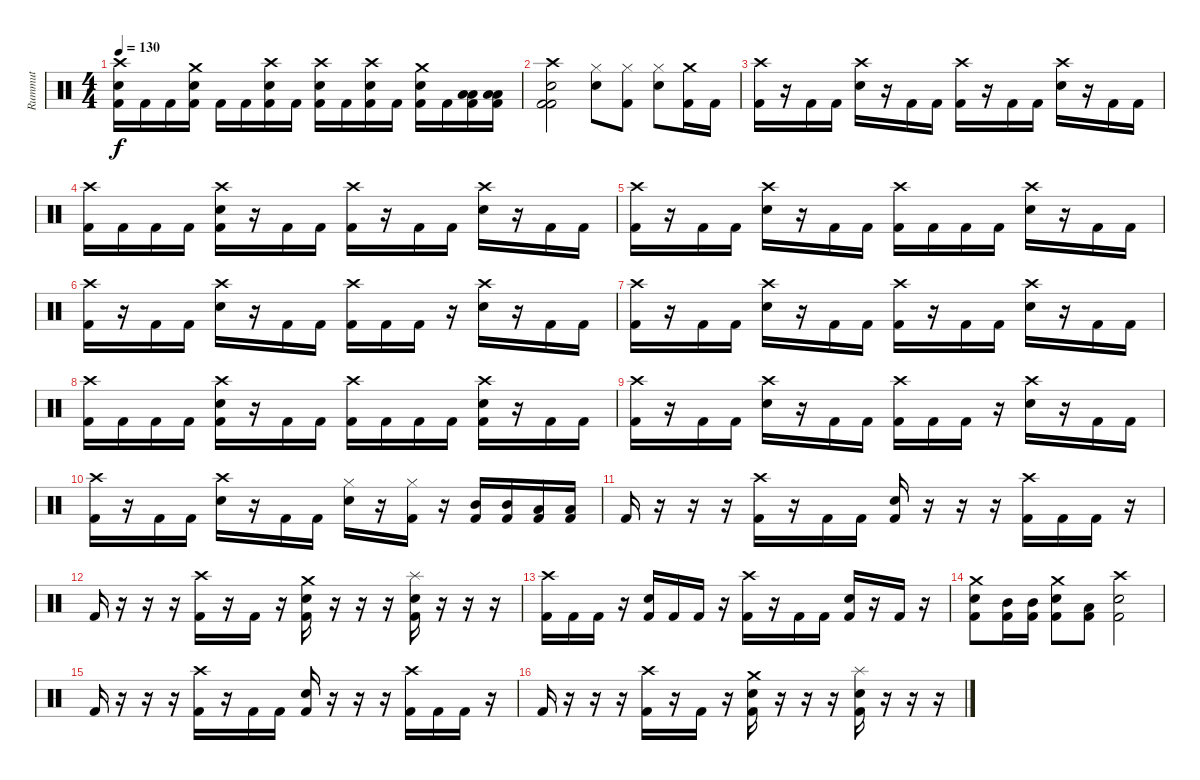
\track ("Rummut" "Rummut") {instrument percussion}
\staff {score}
\articulation defaults
\ts (4 4)
\tempo 130
\clef neutral
\ks c
("Crash high (hit)" "Snare (hit) 2" "Kick (hit) 2").16{dy f} "Kick (hit) 2".16 "Kick (hit) 2".16 ("Crash medium (hit)" "Snare (hit) 2" "Kick (hit) 2").16 "Kick (hit) 2".16 "Kick (hit) 2".16 ("Crash high (hit)" "Snare (hit) 2" "Kick (hit) 2").16 "Kick (hit) 2".16 ("Crash high (hit)" "Snare (hit) 2" "Kick (hit) 2").16 "Kick (hit) 2".16 ("Crash high (hit)" "Snare (hit) 2" "Kick (hit) 2").16 "Kick (hit) 2".16 ("Crash medium (hit)" "Snare (hit) 2" "Kick (hit) 2").16 "Kick (hit) 2".16 ("Low Tom (hit)" "Low Floor Tom (hit)" "Kick (hit) 2").16 ("Low Tom (hit)" "Low Floor Tom (hit)" "Kick (hit) 2").16 |
("Crash high (hit)" "Snare (hit) 2" "Kick (hit) 2" "Kick (hit) 2").2 ("Hi-Hat (closed)" "Snare (hit) 2").8 ("Hi-Hat (closed)" "Kick (hit) 2").8 ("Hi-Hat (closed)" "Snare (hit) 2").8 ("Crash medium (hit)" "Kick (hit) 2").16 "Kick (hit) 2".16 |
("Crash high (hit)" "Kick (hit) 2").16 r.16 "Kick (hit) 2".16 "Kick (hit) 2".16 ("Crash high (hit)" "Snare (hit) 2").16 r.16 "Kick (hit) 2".16 "Kick (hit) 2".16 ("Crash high (hit)" "Kick (hit) 2").16 r.16 "Kick (hit) 2".16 "Kick (hit) 2".16 ("Crash high (hit)" "Snare (hit) 2").16 r.16 "Kick (hit) 2".16 "Kick (hit) 2".16 |
("Crash high (hit)" "Kick (hit) 2").16 "Kick (hit) 2".16 "Kick (hit) 2".16 "Kick (hit) 2".16 ("Crash high (hit)" "Snare (hit) 2" "Kick (hit) 2").16 r.16 "Kick (hit) 2".16 "Kick (hit) 2".16 ("Crash high (hit)" "Kick (hit) 2").16 r.16 "Kick (hit) 2".16 "Kick (hit) 2".16 ("Crash high (hit)" "Snare (hit) 2").16 r.16 "Kick (hit) 2".16 "Kick (hit) 2".16 |
("Crash high (hit)" "Kick (hit) 2").16 r.16 "Kick (hit) 2".16 "Kick (hit) 2".16 ("Crash high (hit)" "Snare (hit) 2").16 r.16 "Kick (hit) 2".16 "Kick (hit) 2".16 ("Crash high (hit)" "Kick (hit) 2").16 "Kick (hit) 2".16 "Kick (hit) 2".16 "Kick (hit) 2".16 ("Crash high (hit)" "Snare (hit) 2").16 r.16 "Kick (hit) 2".16 "Kick (hit) 2".16 |
("Crash high (hit)" "Kick (hit) 2").16 r.16 "Kick (hit) 2".16 "Kick (hit) 2".16 ("Crash high (hit)" "Snare (hit) 2").16 r.16 "Kick (hit) 2".16 "Kick (hit) 2".16 ("Crash high (hit)" "Kick (hit) 2").16 "Kick (hit) 2".16 "Kick (hit) 2".16 r.16 ("Crash high (hit)" "Snare (hit) 2").16 r.16 "Kick (hit) 2".16 "Kick (hit) 2".16 |
("Crash high (hit)" "Kick (hit) 2").16 r.16 "Kick (hit) 2".16 "Kick (hit) 2".16 ("Crash high (hit)" "Snare (hit) 2").16 r.16 "Kick (hit) 2".16 "Kick (hit) 2".16 ("Crash high (hit)" "Kick (hit) 2").16 r.16 "Kick (hit) 2".16 "Kick (hit) 2".16 ("Crash high (hit)" "Snare (hit) 2").16 r.16 "Kick (hit) 2".16 "Kick (hit) 2".16 |
("Crash high (hit)" "Kick (hit) 2").16 "Kick (hit) 2".16 "Kick (hit) 2".16 "Kick (hit) 2".16 ("Crash high (hit)" "Snare (hit) 2" "Kick (hit) 2").16 r.16 "Kick (hit) 2".16 "Kick (hit) 2".16 ("Crash high (hit)" "Kick (hit) 2").16 "Kick (hit) 2".16 "Kick (hit) 2".16 "Kick (hit) 2".16 ("Crash high (hit)" "Snare (hit) 2" "Kick (hit) 2").16 r.16 "Kick (hit) 2".16 "Kick (hit) 2".16 |
("Crash high (hit)" "Kick (hit) 2").16 r.16 "Kick (hit) 2".16 "Kick (hit) 2".16 ("Crash high (hit)" "Snare (hit) 2").16 r.16 "Kick (hit) 2".16 "Kick (hit) 2".16 ("Crash high (hit)" "Kick (hit) 2").16 "Kick (hit) 2".16 "Kick (hit) 2".16 r.16 ("Crash high (hit)" "Snare (hit) 2").16 r.16 "Kick (hit) 2".16 "Kick (hit) 2".16 |
("Crash high (hit)" "Kick (hit) 2").16 r.16 "Kick (hit) 2".16 "Kick (hit) 2".16 ("Crash high (hit)" "Snare (hit) 2").16 r.16 "Kick (hit) 2".16 "Kick (hit) 2".16 ("Hi-Hat (closed)" "Snare (hit) 2").16 r.16 ("Hi-Hat (closed)" "Kick (hit) 2").16 r.16 ("Mid Tom (hit)" "Kick (hit) 2").16 ("Mid Tom (hit)" "Kick (hit) 2").16 ("Low Tom (hit)" "Kick (hit) 2").16 ("Low Tom (hit)" "Kick (hit) 2").16 |
"Kick (hit) 2".16 r.16 r.16 r.16 ("Crash high (hit)" "Kick (hit) 2").16 r.16 "Kick (hit) 2".16 "Kick (hit) 2".16 ("Snare (hit) 2" "Kick (hit) 2").16 r.16 r.16 r.16 ("Crash high (hit)" "Kick (hit) 2").16 "Kick (hit) 2".16 "Kick (hit) 2".16 r.16 |
"Kick (hit) 2".16 r.16 r.16 r.16 ("Crash high (hit)" "Kick (hit) 2").16 r.16 "Kick (hit) 2".16 r.16 ("Crash medium (hit)" "Snare (hit) 2" "Kick (hit) 2").16 r.16 r.16 r.16 ("Splash (hit)" "Snare (hit) 2" "Kick (hit) 2").16 r.16 r.16 r.16 |
("Crash high (hit)" "Kick (hit) 2").16 "Kick (hit) 2".16 "Kick (hit) 2".16 r.16 ("Snare (hit) 2" "Kick (hit) 2").16 "Kick (hit) 2".16 "Kick (hit) 2".16 r.16 ("Crash high (hit)" "Kick (hit) 2").16 r.16 "Kick (hit) 2".16 "Kick (hit) 2".16 ("Snare (hit) 2" "Kick (hit) 2").16 r.16 "Kick (hit) 2".16 r.16 |
("Crash medium (hit)" "Snare (hit) 2" "Kick (hit) 2").8 ("Mid Tom (hit)" "Kick (hit) 2").16 ("Mid Tom (hit)" "Kick (hit) 2").16 ("Crash medium (hit)" "Snare (hit) 2" "Kick (hit) 2").8 ("Low Tom (hit)" "Kick (hit) 2").8 ("Crash high (hit)" "Snare (hit) 2" "Kick (hit) 2").2 |
"Kick (hit) 2".16 r.16 r.16 r.16 ("Crash high (hit)" "Kick (hit) 2").16 r.16 "Kick (hit) 2".16 "Kick (hit) 2".16 ("Snare (hit) 2" "Kick (hit) 2").16 r.16 r.16 r.16 ("Crash high (hit)" "Kick (hit) 2").16 "Kick (hit) 2".16 "Kick (hit) 2".16 r.16 |
"Kick (hit) 2".16 r.16 r.16 r.16 ("Crash high (hit)" "Kick (hit) 2").16 r.16 "Kick (hit) 2".16 r.16 ("Crash medium (hit)" "Snare (hit) 2" "Kick (hit) 2").16 r.16 r.16 r.16 ("Splash (hit)" "Snare (hit) 2" "Kick (hit) 2").16 r.16 r.16 r.16
